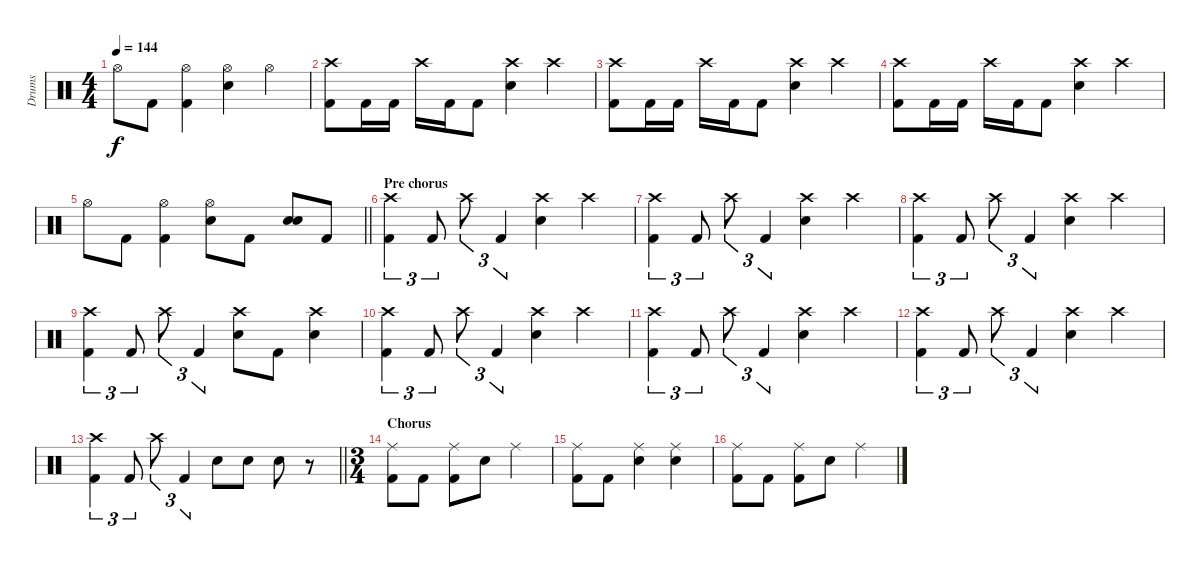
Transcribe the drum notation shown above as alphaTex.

\track ("Drums" "Drums") {instrument percussion}
\staff {score}
\articulation defaults
\ts (4 4)
\tempo 144
\clef neutral
\ks c "Hi-Hat (open)".8{dy f} "Kick (hit) 2".8
("Hi-Hat (open)" "Kick (hit) 2").4 ("Hi-Hat (open)" "Snare (hit) 2").4 "Hi-Hat (open)".4 |
("Crash high (hit)" "Kick (hit) 2").8 "Kick (hit) 2".16 "Kick (hit) 2".16 "Crash high (hit)".16 "Kick (hit) 2".16 "Kick (hit) 2".8 ("Crash high (hit)" "Snare (hit) 2").4 "Crash high (hit)".4 |
("Crash high (hit)" "Kick (hit) 2").8 "Kick (hit) 2".16 "Kick (hit) 2".16 "Crash high (hit)".16 "Kick (hit) 2".16 "Kick (hit) 2".8 ("Crash high (hit)" "Snare (hit) 2").4 "Crash high (hit)".4 |
("Crash high (hit)" "Kick (hit) 2").8 "Kick (hit) 2".16 "Kick (hit) 2".16 "Crash high (hit)".16 "Kick (hit) 2".16 "Kick (hit) 2".8 ("Crash high (hit)" "Snare (hit) 2").4 "Crash high (hit)".4 |
\barLineRight lightlight "Hi-Hat (open)".8 "Kick (hit) 2".8
("Hi-Hat (open)" "Kick (hit) 2").4 ("Hi-Hat (open)" "Snare (hit) 2").8 "Kick (hit) 2".8 ("Snare (hit) 2" "Snare (hit) 2").8{bd 120} "Kick (hit) 2".8 |
\section ("" "Pre chorus")
("Crash high (hit)" "Kick (hit) 2").4{tu (3 2)} "Kick (hit) 2".8{tu (3 2)} "Crash high (hit)".8{tu (3 2)} "Kick (hit) 2".4{tu (3 2)} ("Crash high (hit)" "Snare (hit) 2").4 "Crash high (hit)".4 |
("Crash high (hit)" "Kick (hit) 2").4{tu (3 2)} "Kick (hit) 2".8{tu (3 2)} "Crash high (hit)".8{tu (3 2)} "Kick (hit) 2".4{tu (3 2)} ("Crash high (hit)" "Snare (hit) 2").4 "Crash high (hit)".4 |
("Crash high (hit)" "Kick (hit) 2").4{tu (3 2)} "Kick (hit) 2".8{tu (3 2)} "Crash high (hit)".8{tu (3 2)} "Kick (hit) 2".4{tu (3 2)} ("Crash high (hit)" "Snare (hit) 2").4 "Crash high (hit)".4 |
("Crash high (hit)" "Kick (hit) 2").4{tu (3 2)} "Kick (hit) 2".8{tu (3 2)} "Crash high (hit)".8{tu (3 2)} "Kick (hit) 2".4{tu (3 2)} ("Crash high (hit)" "Snare (hit) 2").8 "Kick (hit) 2".8 ("Crash high (hit)" "Snare (hit) 2").4 |
("Crash high (hit)" "Kick (hit) 2").4{tu (3 2)} "Kick (hit) 2".8{tu (3 2)} "Crash high (hit)".8{tu (3 2)} "Kick (hit) 2".4{tu (3 2)} ("Crash high (hit)" "Snare (hit) 2").4 "Crash high (hit)".4 |
("Crash high (hit)" "Kick (hit) 2").4{tu (3 2)} "Kick (hit) 2".8{tu (3 2)} "Crash high (hit)".8{tu (3 2)} "Kick (hit) 2".4{tu (3 2)} ("Crash high (hit)" "Snare (hit) 2").4 "Crash high (hit)".4 |
("Crash high (hit)" "Kick (hit) 2").4{tu (3 2)} "Kick (hit) 2".8{tu (3 2)} "Crash high (hit)".8{tu (3 2)} "Kick (hit) 2".4{tu (3 2)} ("Crash high (hit)" "Snare (hit) 2").4 "Crash high (hit)".4 |
\barLineRight lightlight
("Crash high (hit)" "Kick (hit) 2").4{tu (3 2)} "Kick (hit) 2".8{tu (3 2)} "Crash high (hit)".8{tu (3 2)} "Kick (hit) 2".4{tu (3 2)} "Snare (hit) 2".8 "Snare (hit) 2".8 "Snare (hit) 2".8 r.8 |
\ts (3 4)
\section ("" "Chorus")
("Ride (middle)" "Kick (hit) 2").8 "Kick (hit) 2".8 ("Ride (middle)" "Kick (hit) 2").8 "Snare (hit) 2".8 "Ride (middle)".4 |
("Ride (middle)" "Kick (hit) 2").8 "Kick (hit) 2".8 ("Ride (middle)" "Snare (hit) 2").4 ("Ride (middle)" "Snare (hit) 2").4 |
("Ride (middle)" "Kick (hit) 2").8 "Kick (hit) 2".8 ("Ride (middle)" "Kick (hit) 2").8 "Snare (hit) 2".8 "Ride (middle)".4
